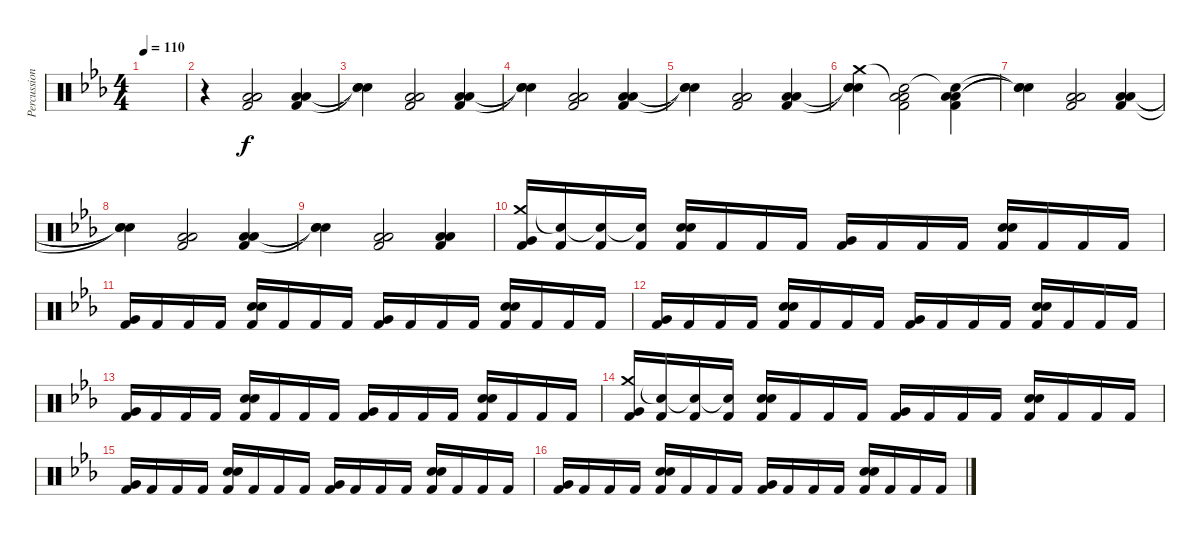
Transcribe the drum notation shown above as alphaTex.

\track ("Percussions" "Percussion") {instrument percussion}
\staff {score}
\articulation defaults
\ts (4 4)
\tempo 110
\clef neutral
\ks cminor
|
r.4 ("Low Floor Tom (hit)" "Low Floor Tom (hit)" "Kick (hit) 2").2 ("Low Floor Tom (hit)" "Low Floor Tom (hit)" "Kick (hit) 2").4 |
("Snare (hit)"{t} "Snare (hit)"{t} "Snare (hit)"{t}).4 ("Low Floor Tom (hit)" "Low Floor Tom (hit)" "Kick (hit) 2").2 ("Low Floor Tom (hit)" "Low Floor Tom (hit)" "Kick (hit) 2").4 |
("Snare (hit)"{t} "Snare (hit)"{t} "Snare (hit)"{t}).4 ("Low Floor Tom (hit)" "Low Floor Tom (hit)" "Kick (hit) 2").2 ("Low Floor Tom (hit)" "Low Floor Tom (hit)" "Kick (hit) 2").4 |
("Snare (hit)"{t} "Snare (hit)"{t} "Snare (hit)"{t}).4 ("Low Floor Tom (hit)" "Low Floor Tom (hit)" "Kick (hit) 2").2 ("Low Floor Tom (hit)" "Low Floor Tom (hit)" "Kick (hit) 2").4 |
("Crash medium (hit)" "Snare (hit)"{t} "Snare (hit)"{t} "Snare (hit)").4 ("Snare (hit)"{t} "Low Floor Tom (hit)" "Low Floor Tom (hit)" "Kick (hit) 2").2 ("Snare (hit)"{t} "Low Floor Tom (hit)" "Low Floor Tom (hit)" "Kick (hit) 2").4 |
("Snare (hit)"{t} "Snare (hit)"{t} "Snare (hit)"{t}).4 ("Low Floor Tom (hit)" "Low Floor Tom (hit)" "Kick (hit) 2").2 ("Low Floor Tom (hit)" "Low Floor Tom (hit)" "Kick (hit) 2").4 |
("Snare (hit)"{t} "Snare (hit)"{t} "Snare (hit)"{t}).4 ("Low Floor Tom (hit)" "Low Floor Tom (hit)" "Kick (hit) 2").2 ("Low Floor Tom (hit)" "Low Floor Tom (hit)" "Kick (hit) 2").4 |
("Snare (hit)"{t} "Snare (hit)"{t} "Snare (hit)"{t}).4 ("Low Floor Tom (hit)" "Low Floor Tom (hit)" "Kick (hit) 2").2 ("Low Floor Tom (hit)" "Low Floor Tom (hit)" "Kick (hit) 2").4 |
("Crash medium (hit)" "Very Low Tom (hit)" "Kick (hit) 2").16 ("Snare (hit)"{t} "Kick (hit) 2").16 ("Snare (hit)"{t} "Kick (hit) 2").16 ("Snare (hit)"{t} "Kick (hit) 2").16 ("Electric Snare (hit)" "Electric Snare (hit)" "Kick (hit) 2").16 "Kick (hit) 2".16 "Kick (hit) 2".16 "Kick (hit) 2".16 ("Very Low Tom (hit)" "Kick (hit) 2").16 "Kick (hit) 2".16 "Kick (hit) 2".16 "Kick (hit) 2".16 ("Electric Snare (hit)" "Electric Snare (hit)" "Kick (hit) 2").16 "Kick (hit) 2".16 "Kick (hit) 2".16 "Kick (hit) 2".16 |
("Very Low Tom (hit)" "Kick (hit) 2").16 "Kick (hit) 2".16 "Kick (hit) 2".16 "Kick (hit) 2".16 ("Electric Snare (hit)" "Electric Snare (hit)" "Kick (hit) 2").16 "Kick (hit) 2".16 "Kick (hit) 2".16 "Kick (hit) 2".16 ("Very Low Tom (hit)" "Kick (hit) 2").16 "Kick (hit) 2".16 "Kick (hit) 2".16 "Kick (hit) 2".16 ("Electric Snare (hit)" "Electric Snare (hit)" "Kick (hit) 2").16 "Kick (hit) 2".16 "Kick (hit) 2".16 "Kick (hit) 2".16 |
("Very Low Tom (hit)" "Kick (hit) 2").16 "Kick (hit) 2".16 "Kick (hit) 2".16 "Kick (hit) 2".16 ("Electric Snare (hit)" "Electric Snare (hit)" "Kick (hit) 2").16 "Kick (hit) 2".16 "Kick (hit) 2".16 "Kick (hit) 2".16 ("Very Low Tom (hit)" "Kick (hit) 2").16 "Kick (hit) 2".16 "Kick (hit) 2".16 "Kick (hit) 2".16 ("Electric Snare (hit)" "Electric Snare (hit)" "Kick (hit) 2").16 "Kick (hit) 2".16 "Kick (hit) 2".16 "Kick (hit) 2".16 |
("Very Low Tom (hit)" "Kick (hit) 2").16 "Kick (hit) 2".16 "Kick (hit) 2".16 "Kick (hit) 2".16 ("Electric Snare (hit)" "Electric Snare (hit)" "Kick (hit) 2").16 "Kick (hit) 2".16 "Kick (hit) 2".16 "Kick (hit) 2".16 ("Very Low Tom (hit)" "Kick (hit) 2").16 "Kick (hit) 2".16 "Kick (hit) 2".16 "Kick (hit) 2".16 ("Electric Snare (hit)" "Electric Snare (hit)" "Kick (hit) 2").16 "Kick (hit) 2".16 "Kick (hit) 2".16 "Kick (hit) 2".16 |
("Crash medium (hit)" "Very Low Tom (hit)" "Kick (hit) 2").16 ("Snare (hit)"{t} "Kick (hit) 2").16 ("Snare (hit)"{t} "Kick (hit) 2").16 ("Snare (hit)"{t} "Kick (hit) 2").16 ("Electric Snare (hit)" "Electric Snare (hit)" "Kick (hit) 2").16 "Kick (hit) 2".16 "Kick (hit) 2".16 "Kick (hit) 2".16 ("Very Low Tom (hit)" "Kick (hit) 2").16 "Kick (hit) 2".16 "Kick (hit) 2".16 "Kick (hit) 2".16 ("Electric Snare (hit)" "Electric Snare (hit)" "Kick (hit) 2").16 "Kick (hit) 2".16 "Kick (hit) 2".16 "Kick (hit) 2".16 |
("Very Low Tom (hit)" "Kick (hit) 2").16 "Kick (hit) 2".16 "Kick (hit) 2".16 "Kick (hit) 2".16 ("Electric Snare (hit)" "Electric Snare (hit)" "Kick (hit) 2").16 "Kick (hit) 2".16 "Kick (hit) 2".16 "Kick (hit) 2".16 ("Very Low Tom (hit)" "Kick (hit) 2").16 "Kick (hit) 2".16 "Kick (hit) 2".16 "Kick (hit) 2".16 ("Electric Snare (hit)" "Electric Snare (hit)" "Kick (hit) 2").16 "Kick (hit) 2".16 "Kick (hit) 2".16 "Kick (hit) 2".16 |
("Very Low Tom (hit)" "Kick (hit) 2").16 "Kick (hit) 2".16 "Kick (hit) 2".16 "Kick (hit) 2".16 ("Electric Snare (hit)" "Electric Snare (hit)" "Kick (hit) 2").16 "Kick (hit) 2".16 "Kick (hit) 2".16 "Kick (hit) 2".16 ("Very Low Tom (hit)" "Kick (hit) 2").16 "Kick (hit) 2".16 "Kick (hit) 2".16 "Kick (hit) 2".16 ("Electric Snare (hit)" "Electric Snare (hit)" "Kick (hit) 2").16 "Kick (hit) 2".16 "Kick (hit) 2".16 "Kick (hit) 2".16
